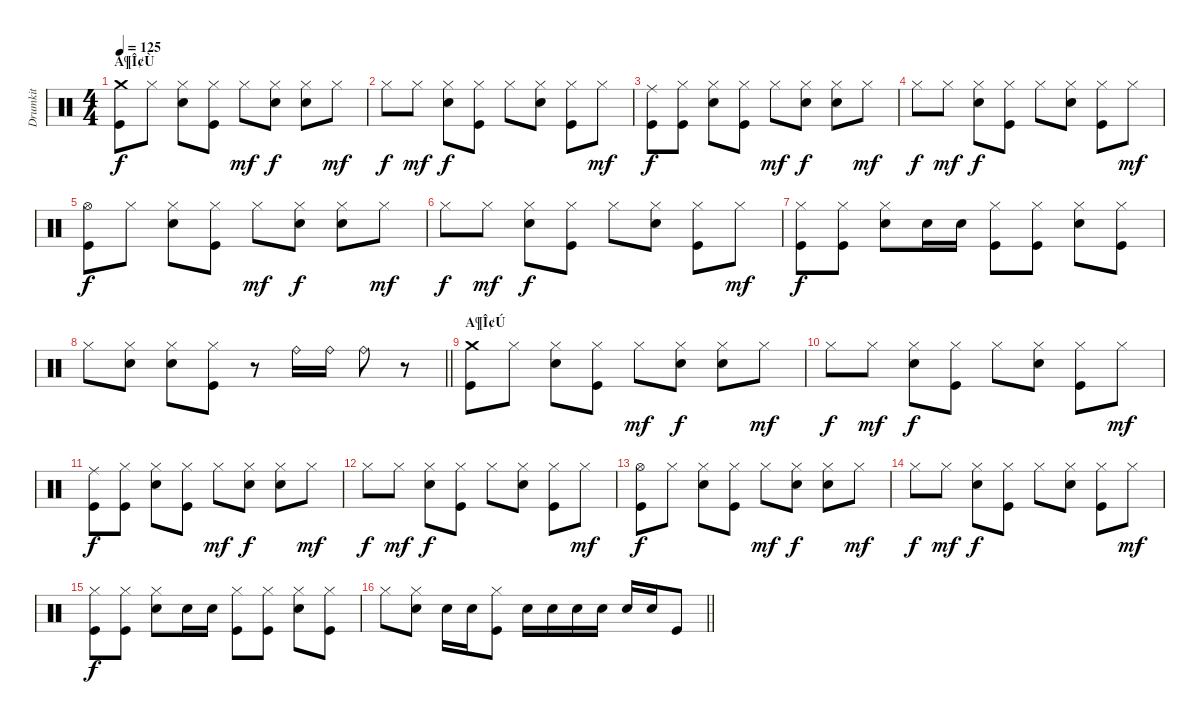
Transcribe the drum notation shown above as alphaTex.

\track ("Drumkit" "Drumkit") {instrument percussion}
\staff {score}
\articulation defaults
\ts (4 4)
\section ("" "A¶Î¢Ù")
\tempo 125
\clef neutral
\ks c
("Kick (hit)" "Crash medium (hit)").8{dy f} "Hi-Hat (closed)".8 ("Snare (hit) 2" "Hi-Hat (closed)").8 ("Kick (hit)" "Hi-Hat (closed)").8 "Hi-Hat (closed)".8{dy mf} ("Snare (hit) 2" "Hi-Hat (closed)").8{dy f} ("Snare (hit) 2" "Hi-Hat (closed)").8 "Hi-Hat (closed)".8{dy mf} |
"Hi-Hat (closed)".8{dy f} "Hi-Hat (closed)".8{dy mf} ("Snare (hit) 2" "Hi-Hat (closed)").8{dy f} ("Kick (hit)" "Hi-Hat (closed)").8 "Hi-Hat (closed)".8 ("Snare (hit) 2" "Hi-Hat (closed)").8 ("Kick (hit)" "Hi-Hat (closed)").8 "Hi-Hat (closed)".8{dy mf} |
("Kick (hit)" "Ride (middle)").8{dy f} ("Kick (hit)" "Hi-Hat (closed)").8 ("Snare (hit) 2" "Hi-Hat (closed)").8 ("Kick (hit)" "Hi-Hat (closed)").8 "Hi-Hat (closed)".8{dy mf} ("Snare (hit) 2" "Hi-Hat (closed)").8{dy f} ("Snare (hit) 2" "Hi-Hat (closed)").8 "Hi-Hat (closed)".8{dy mf} |
"Hi-Hat (closed)".8{dy f} "Hi-Hat (closed)".8{dy mf} ("Snare (hit) 2" "Hi-Hat (closed)").8{dy f} ("Kick (hit)" "Hi-Hat (closed)").8 "Hi-Hat (closed)".8 ("Snare (hit) 2" "Hi-Hat (closed)").8 ("Kick (hit)" "Hi-Hat (closed)").8 "Hi-Hat (closed)".8{dy mf} |
("Kick (hit)" "Hi-Hat (open)").8{dy f} "Hi-Hat (closed)".8 ("Snare (hit) 2" "Hi-Hat (closed)").8 ("Kick (hit)" "Hi-Hat (closed)").8 "Hi-Hat (closed)".8{dy mf} ("Snare (hit) 2" "Hi-Hat (closed)").8{dy f} ("Snare (hit) 2" "Hi-Hat (closed)").8 "Hi-Hat (closed)".8{dy mf} |
"Hi-Hat (closed)".8{dy f} "Hi-Hat (closed)".8{dy mf} ("Snare (hit) 2" "Hi-Hat (closed)").8{dy f} ("Kick (hit)" "Hi-Hat (closed)").8 "Hi-Hat (closed)".8 ("Snare (hit) 2" "Hi-Hat (closed)").8 ("Kick (hit)" "Hi-Hat (closed)").8 "Hi-Hat (closed)".8{dy mf} |
("Kick (hit)" "Hi-Hat (closed)").8{dy f} ("Kick (hit)" "Hi-Hat (closed)").8 ("Snare (hit) 2" "Hi-Hat (closed)").8 "Snare (hit) 2".16 "Snare (hit) 2".16 ("Kick (hit)" "Hi-Hat (closed)").8 ("Kick (hit)" "Hi-Hat (closed)").8 ("Snare (hit) 2" "Hi-Hat (closed)").8 ("Kick (hit)" "Hi-Hat (closed)").8 |
\barLineRight lightlight "Hi-Hat (closed)".8
("Snare (hit) 2" "Hi-Hat (closed)").8 ("Snare (hit) 2" "Hi-Hat (closed)").8 ("Kick (hit)" "Hi-Hat (closed)").8 r.8 "Ride (bell)".16 "Ride (bell)".16 "Ride (bell)".8 r.8 |
\section ("" "A¶Î¢Ú")
("Kick (hit)" "Crash medium (hit)").8 "Hi-Hat (closed)".8 ("Snare (hit) 2" "Hi-Hat (closed)").8 ("Kick (hit)" "Hi-Hat (closed)").8 "Hi-Hat (closed)".8{dy mf} ("Snare (hit) 2" "Hi-Hat (closed)").8{dy f} ("Snare (hit) 2" "Hi-Hat (closed)").8 "Hi-Hat (closed)".8{dy mf} |
"Hi-Hat (closed)".8{dy f} "Hi-Hat (closed)".8{dy mf} ("Snare (hit) 2" "Hi-Hat (closed)").8{dy f} ("Kick (hit)" "Hi-Hat (closed)").8 "Hi-Hat (closed)".8 ("Snare (hit) 2" "Hi-Hat (closed)").8 ("Kick (hit)" "Hi-Hat (closed)").8 "Hi-Hat (closed)".8{dy mf} |
("Kick (hit)" "Ride (middle)").8{dy f} ("Kick (hit)" "Hi-Hat (closed)").8 ("Snare (hit) 2" "Hi-Hat (closed)").8 ("Kick (hit)" "Hi-Hat (closed)").8 "Hi-Hat (closed)".8{dy mf} ("Snare (hit) 2" "Hi-Hat (closed)").8{dy f} ("Snare (hit) 2" "Hi-Hat (closed)").8 "Hi-Hat (closed)".8{dy mf} |
"Hi-Hat (closed)".8{dy f} "Hi-Hat (closed)".8{dy mf} ("Snare (hit) 2" "Hi-Hat (closed)").8{dy f} ("Kick (hit)" "Hi-Hat (closed)").8 "Hi-Hat (closed)".8 ("Snare (hit) 2" "Hi-Hat (closed)").8 ("Kick (hit)" "Hi-Hat (closed)").8 "Hi-Hat (closed)".8{dy mf} |
("Kick (hit)" "Hi-Hat (open)").8{dy f} "Hi-Hat (closed)".8 ("Snare (hit) 2" "Hi-Hat (closed)").8 ("Kick (hit)" "Hi-Hat (closed)").8 "Hi-Hat (closed)".8{dy mf} ("Snare (hit) 2" "Hi-Hat (closed)").8{dy f} ("Snare (hit) 2" "Hi-Hat (closed)").8 "Hi-Hat (closed)".8{dy mf} |
"Hi-Hat (closed)".8{dy f} "Hi-Hat (closed)".8{dy mf} ("Snare (hit) 2" "Hi-Hat (closed)").8{dy f} ("Kick (hit)" "Hi-Hat (closed)").8 "Hi-Hat (closed)".8 ("Snare (hit) 2" "Hi-Hat (closed)").8 ("Kick (hit)" "Hi-Hat (closed)").8 "Hi-Hat (closed)".8{dy mf} |
("Kick (hit)" "Hi-Hat (closed)").8{dy f} ("Kick (hit)" "Hi-Hat (closed)").8 ("Snare (hit) 2" "Hi-Hat (closed)").8 "Snare (hit) 2".16 "Snare (hit) 2".16 ("Kick (hit)" "Hi-Hat (closed)").8 ("Kick (hit)" "Hi-Hat (closed)").8 ("Snare (hit) 2" "Hi-Hat (closed)").8 ("Kick (hit)" "Hi-Hat (closed)").8 |
\barLineRight lightlight "Hi-Hat (closed)".8
("Snare (hit) 2" "Hi-Hat (closed)").8 "Snare (hit) 2".16 "Snare (hit) 2".16 ("Kick (hit)" "Hi-Hat (closed)").8 "Snare (hit) 2".16 "Snare (hit) 2".16 "Snare (hit) 2".16 "Snare (hit) 2".16 "Snare (hit) 2".16 "Snare (hit) 2".16 "Kick (hit)".8
